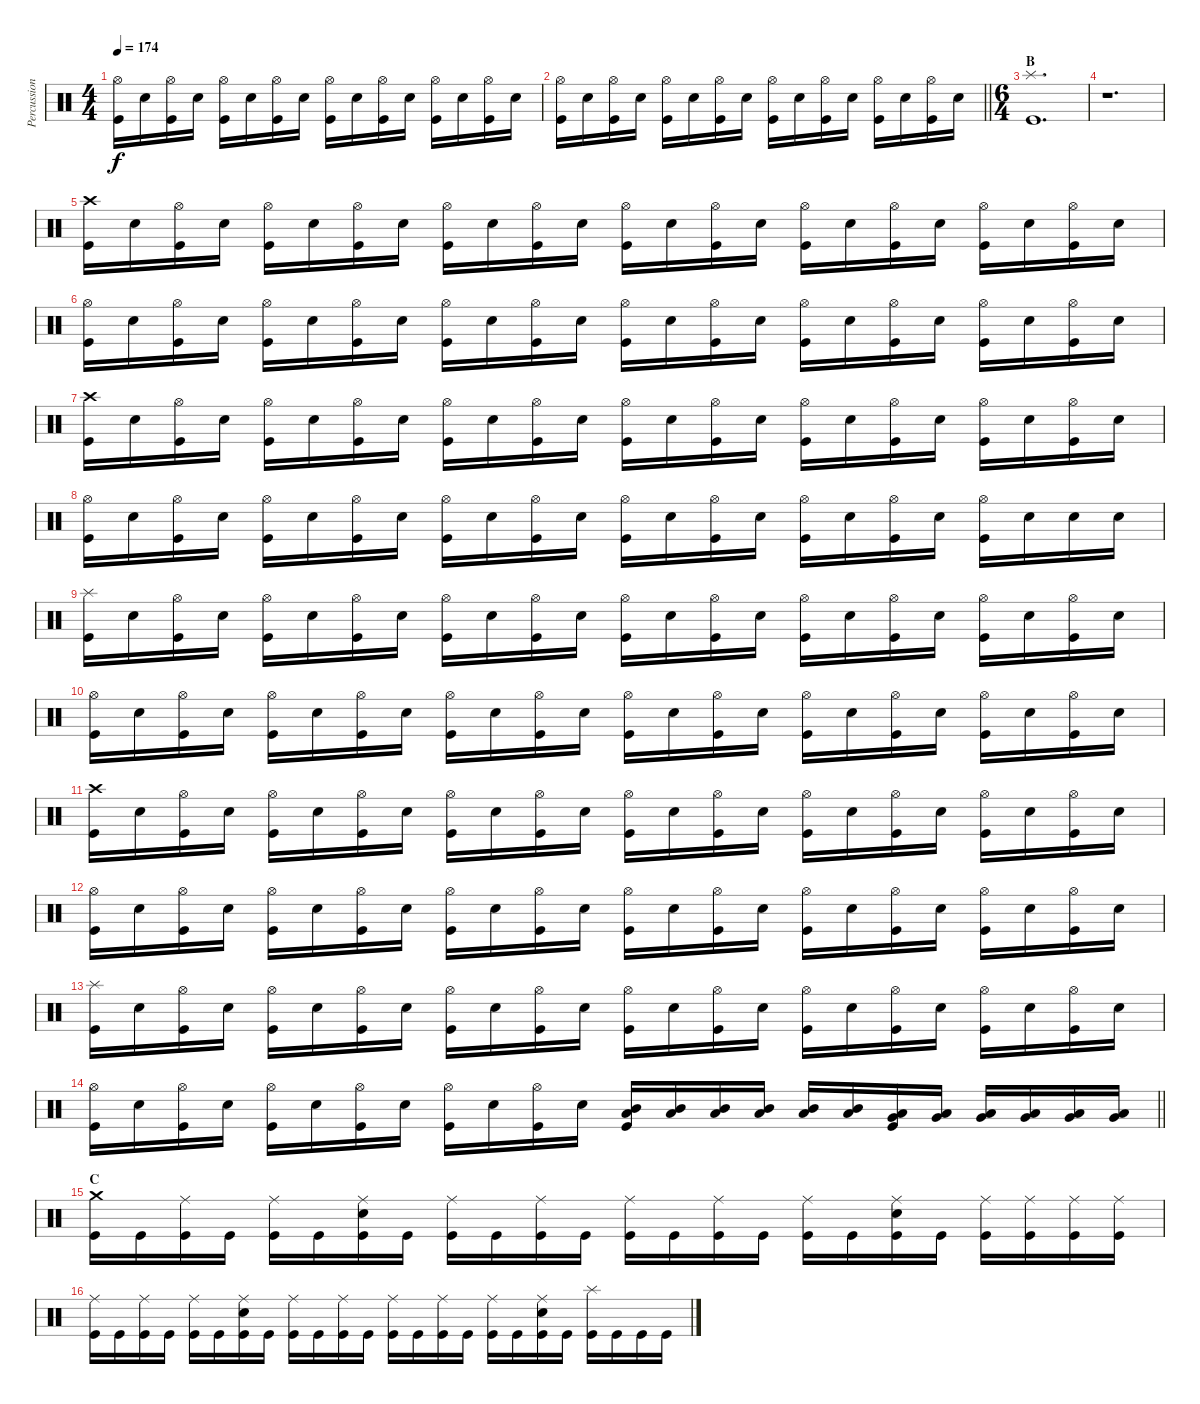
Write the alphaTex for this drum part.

\track ("Percussion" "Percussion") {instrument percussion}
\staff {score}
\articulation defaults
\ts (4 4)
\tempo 174
\clef neutral
\ks c
("Hi-Hat (open)" "Kick (hit)").16{dy f} "Snare (hit) 2".16 ("Hi-Hat (open)" "Kick (hit)").16 "Snare (hit) 2".16 ("Hi-Hat (open)" "Kick (hit)").16 "Snare (hit) 2".16 ("Hi-Hat (open)" "Kick (hit)").16 "Snare (hit) 2".16 ("Hi-Hat (open)" "Kick (hit)").16 "Snare (hit) 2".16 ("Hi-Hat (open)" "Kick (hit)").16 "Snare (hit) 2".16 ("Hi-Hat (open)" "Kick (hit)").16 "Snare (hit) 2".16 ("Hi-Hat (open)" "Kick (hit)").16 "Snare (hit) 2".16 |
\barLineRight lightlight
("Hi-Hat (open)" "Kick (hit)").16 "Snare (hit) 2".16 ("Hi-Hat (open)" "Kick (hit)").16 "Snare (hit) 2".16 ("Hi-Hat (open)" "Kick (hit)").16 "Snare (hit) 2".16 ("Hi-Hat (open)" "Kick (hit)").16 "Snare (hit) 2".16 ("Hi-Hat (open)" "Kick (hit)").16 "Snare (hit) 2".16 ("Hi-Hat (open)" "Kick (hit)").16 "Snare (hit) 2".16 ("Hi-Hat (open)" "Kick (hit)").16 "Snare (hit) 2".16 ("Hi-Hat (open)" "Kick (hit)").16 "Snare (hit) 2".16 |
\ts (6 4)
\section ("" "B")
("Splash (hit)" "Kick (hit)").1{d} |
r.1{d} |
("Crash high (hit)" "Kick (hit)").16 "Snare (hit) 2".16 ("Hi-Hat (open)" "Kick (hit)").16 "Snare (hit) 2".16 ("Hi-Hat (open)" "Kick (hit)").16 "Snare (hit) 2".16 ("Hi-Hat (open)" "Kick (hit)").16 "Snare (hit) 2".16 ("Hi-Hat (open)" "Kick (hit)").16 "Snare (hit) 2".16 ("Hi-Hat (open)" "Kick (hit)").16 "Snare (hit) 2".16 ("Hi-Hat (open)" "Kick (hit)").16 "Snare (hit) 2".16 ("Hi-Hat (open)" "Kick (hit)").16 "Snare (hit) 2".16 ("Hi-Hat (open)" "Kick (hit)").16 "Snare (hit) 2".16 ("Hi-Hat (open)" "Kick (hit)").16 "Snare (hit) 2".16 ("Hi-Hat (open)" "Kick (hit)").16 "Snare (hit) 2".16 ("Hi-Hat (open)" "Kick (hit)").16 "Snare (hit) 2".16 |
("Hi-Hat (open)" "Kick (hit)").16 "Snare (hit) 2".16 ("Hi-Hat (open)" "Kick (hit)").16 "Snare (hit) 2".16 ("Hi-Hat (open)" "Kick (hit)").16 "Snare (hit) 2".16 ("Hi-Hat (open)" "Kick (hit)").16 "Snare (hit) 2".16 ("Hi-Hat (open)" "Kick (hit)").16 "Snare (hit) 2".16 ("Hi-Hat (open)" "Kick (hit)").16 "Snare (hit) 2".16 ("Hi-Hat (open)" "Kick (hit)").16 "Snare (hit) 2".16 ("Hi-Hat (open)" "Kick (hit)").16 "Snare (hit) 2".16 ("Hi-Hat (open)" "Kick (hit)").16 "Snare (hit) 2".16 ("Hi-Hat (open)" "Kick (hit)").16 "Snare (hit) 2".16 ("Hi-Hat (open)" "Kick (hit)").16 "Snare (hit) 2".16 ("Hi-Hat (open)" "Kick (hit)").16 "Snare (hit) 2".16 |
("Crash high (hit)" "Kick (hit)").16 "Snare (hit) 2".16 ("Hi-Hat (open)" "Kick (hit)").16 "Snare (hit) 2".16 ("Hi-Hat (open)" "Kick (hit)").16 "Snare (hit) 2".16 ("Hi-Hat (open)" "Kick (hit)").16 "Snare (hit) 2".16 ("Hi-Hat (open)" "Kick (hit)").16 "Snare (hit) 2".16 ("Hi-Hat (open)" "Kick (hit)").16 "Snare (hit) 2".16 ("Hi-Hat (open)" "Kick (hit)").16 "Snare (hit) 2".16 ("Hi-Hat (open)" "Kick (hit)").16 "Snare (hit) 2".16 ("Hi-Hat (open)" "Kick (hit)").16 "Snare (hit) 2".16 ("Hi-Hat (open)" "Kick (hit)").16 "Snare (hit) 2".16 ("Hi-Hat (open)" "Kick (hit)").16 "Snare (hit) 2".16 ("Hi-Hat (open)" "Kick (hit)").16 "Snare (hit) 2".16 |
("Hi-Hat (open)" "Kick (hit)").16 "Snare (hit) 2".16 ("Hi-Hat (open)" "Kick (hit)").16 "Snare (hit) 2".16 ("Hi-Hat (open)" "Kick (hit)").16 "Snare (hit) 2".16 ("Hi-Hat (open)" "Kick (hit)").16 "Snare (hit) 2".16 ("Hi-Hat (open)" "Kick (hit)").16 "Snare (hit) 2".16 ("Hi-Hat (open)" "Kick (hit)").16 "Snare (hit) 2".16 ("Hi-Hat (open)" "Kick (hit)").16 "Snare (hit) 2".16 ("Hi-Hat (open)" "Kick (hit)").16 "Snare (hit) 2".16 ("Hi-Hat (open)" "Kick (hit)").16 "Snare (hit) 2".16 ("Hi-Hat (open)" "Kick (hit)").16 "Snare (hit) 2".16 ("Hi-Hat (open)" "Kick (hit)").16 "Snare (hit) 2".16 "Snare (hit) 2".16 "Snare (hit) 2".16 |
("Splash (hit)" "Kick (hit)").16 "Snare (hit) 2".16 ("Hi-Hat (open)" "Kick (hit)").16 "Snare (hit) 2".16 ("Hi-Hat (open)" "Kick (hit)").16 "Snare (hit) 2".16 ("Hi-Hat (open)" "Kick (hit)").16 "Snare (hit) 2".16 ("Hi-Hat (open)" "Kick (hit)").16 "Snare (hit) 2".16 ("Hi-Hat (open)" "Kick (hit)").16 "Snare (hit) 2".16 ("Hi-Hat (open)" "Kick (hit)").16 "Snare (hit) 2".16 ("Hi-Hat (open)" "Kick (hit)").16 "Snare (hit) 2".16 ("Hi-Hat (open)" "Kick (hit)").16 "Snare (hit) 2".16 ("Hi-Hat (open)" "Kick (hit)").16 "Snare (hit) 2".16 ("Hi-Hat (open)" "Kick (hit)").16 "Snare (hit) 2".16 ("Hi-Hat (open)" "Kick (hit)").16 "Snare (hit) 2".16 |
("Hi-Hat (open)" "Kick (hit)").16 "Snare (hit) 2".16 ("Hi-Hat (open)" "Kick (hit)").16 "Snare (hit) 2".16 ("Hi-Hat (open)" "Kick (hit)").16 "Snare (hit) 2".16 ("Hi-Hat (open)" "Kick (hit)").16 "Snare (hit) 2".16 ("Hi-Hat (open)" "Kick (hit)").16 "Snare (hit) 2".16 ("Hi-Hat (open)" "Kick (hit)").16 "Snare (hit) 2".16 ("Hi-Hat (open)" "Kick (hit)").16 "Snare (hit) 2".16 ("Hi-Hat (open)" "Kick (hit)").16 "Snare (hit) 2".16 ("Hi-Hat (open)" "Kick (hit)").16 "Snare (hit) 2".16 ("Hi-Hat (open)" "Kick (hit)").16 "Snare (hit) 2".16 ("Hi-Hat (open)" "Kick (hit)").16 "Snare (hit) 2".16 ("Hi-Hat (open)" "Kick (hit)").16 "Snare (hit) 2".16 |
("Crash high (hit)" "Kick (hit)").16 "Snare (hit) 2".16 ("Hi-Hat (open)" "Kick (hit)").16 "Snare (hit) 2".16 ("Hi-Hat (open)" "Kick (hit)").16 "Snare (hit) 2".16 ("Hi-Hat (open)" "Kick (hit)").16 "Snare (hit) 2".16 ("Hi-Hat (open)" "Kick (hit)").16 "Snare (hit) 2".16 ("Hi-Hat (open)" "Kick (hit)").16 "Snare (hit) 2".16 ("Hi-Hat (open)" "Kick (hit)").16 "Snare (hit) 2".16 ("Hi-Hat (open)" "Kick (hit)").16 "Snare (hit) 2".16 ("Hi-Hat (open)" "Kick (hit)").16 "Snare (hit) 2".16 ("Hi-Hat (open)" "Kick (hit)").16 "Snare (hit) 2".16 ("Hi-Hat (open)" "Kick (hit)").16 "Snare (hit) 2".16 ("Hi-Hat (open)" "Kick (hit)").16 "Snare (hit) 2".16 |
("Hi-Hat (open)" "Kick (hit)").16 "Snare (hit) 2".16 ("Hi-Hat (open)" "Kick (hit)").16 "Snare (hit) 2".16 ("Hi-Hat (open)" "Kick (hit)").16 "Snare (hit) 2".16 ("Hi-Hat (open)" "Kick (hit)").16 "Snare (hit) 2".16 ("Hi-Hat (open)" "Kick (hit)").16 "Snare (hit) 2".16 ("Hi-Hat (open)" "Kick (hit)").16 "Snare (hit) 2".16 ("Hi-Hat (open)" "Kick (hit)").16 "Snare (hit) 2".16 ("Hi-Hat (open)" "Kick (hit)").16 "Snare (hit) 2".16 ("Hi-Hat (open)" "Kick (hit)").16 "Snare (hit) 2".16 ("Hi-Hat (open)" "Kick (hit)").16 "Snare (hit) 2".16 ("Hi-Hat (open)" "Kick (hit)").16 "Snare (hit) 2".16 ("Hi-Hat (open)" "Kick (hit)").16 "Snare (hit) 2".16 |
("Splash (hit)" "Kick (hit)").16 "Snare (hit) 2".16 ("Hi-Hat (open)" "Kick (hit)").16 "Snare (hit) 2".16 ("Hi-Hat (open)" "Kick (hit)").16 "Snare (hit) 2".16 ("Hi-Hat (open)" "Kick (hit)").16 "Snare (hit) 2".16 ("Hi-Hat (open)" "Kick (hit)").16 "Snare (hit) 2".16 ("Hi-Hat (open)" "Kick (hit)").16 "Snare (hit) 2".16 ("Hi-Hat (open)" "Kick (hit)").16 "Snare (hit) 2".16 ("Hi-Hat (open)" "Kick (hit)").16 "Snare (hit) 2".16 ("Hi-Hat (open)" "Kick (hit)").16 "Snare (hit) 2".16 ("Hi-Hat (open)" "Kick (hit)").16 "Snare (hit) 2".16 ("Hi-Hat (open)" "Kick (hit)").16 "Snare (hit) 2".16 ("Hi-Hat (open)" "Kick (hit)").16 "Snare (hit) 2".16 |
\barLineRight lightlight
("Hi-Hat (open)" "Kick (hit)").16 "Snare (hit) 2".16 ("Hi-Hat (open)" "Kick (hit)").16 "Snare (hit) 2".16 ("Hi-Hat (open)" "Kick (hit)").16 "Snare (hit) 2".16 ("Hi-Hat (open)" "Kick (hit)").16 "Snare (hit) 2".16 ("Hi-Hat (open)" "Kick (hit)").16 "Snare (hit) 2".16 ("Hi-Hat (open)" "Kick (hit)").16 "Snare (hit) 2".16 ("Mid Tom (hit)" "Low Tom (hit)" "Kick (hit)").16 ("Mid Tom (hit)" "Low Tom (hit)").16 ("Mid Tom (hit)" "Low Tom (hit)").16 ("Mid Tom (hit)" "Low Tom (hit)").16 ("Mid Tom (hit)" "Low Tom (hit)").16 ("Mid Tom (hit)" "Low Tom (hit)").16 ("Low Tom (hit)" "Very Low Tom (hit)" "Kick (hit)").16 ("Low Tom (hit)" "Very Low Tom (hit)").16 ("Low Tom (hit)" "Very Low Tom (hit)").16 ("Low Tom (hit)" "Very Low Tom (hit)").16 ("Low Tom (hit)" "Very Low Tom (hit)").16 ("Low Tom (hit)" "Very Low Tom (hit)").16 |
\section ("" "C")
("Crash medium (hit)" "Kick (hit)").16 "Kick (hit)".16 ("Ride (middle)" "Kick (hit)").16 "Kick (hit)".16 ("Ride (middle)" "Kick (hit)").16 "Kick (hit)".16 ("Ride (middle)" "Snare (hit) 2" "Kick (hit)").16 "Kick (hit)".16 ("Ride (middle)" "Kick (hit)").16 "Kick (hit)".16 ("Ride (middle)" "Kick (hit)").16 "Kick (hit)".16 ("Ride (middle)" "Kick (hit)").16 "Kick (hit)".16 ("Ride (middle)" "Kick (hit)").16 "Kick (hit)".16 ("Ride (middle)" "Kick (hit)").16 "Kick (hit)".16 ("Ride (middle)" "Snare (hit) 2" "Kick (hit)").16 "Kick (hit)".16 ("Ride (middle)" "Kick (hit)").16 ("Ride (middle)" "Kick (hit)").16 ("Ride (middle)" "Kick (hit)").16 ("Ride (middle)" "Kick (hit)").16 |
("Ride (middle)" "Kick (hit)").16 "Kick (hit)".16 ("Ride (middle)" "Kick (hit)").16 "Kick (hit)".16 ("Ride (middle)" "Kick (hit)").16 "Kick (hit)".16 ("Ride (middle)" "Snare (hit) 2" "Kick (hit)").16 "Kick (hit)".16 ("Ride (middle)" "Kick (hit)").16 "Kick (hit)".16 ("Ride (middle)" "Kick (hit)").16 "Kick (hit)".16 ("Ride (middle)" "Kick (hit)").16 "Kick (hit)".16 ("Ride (middle)" "Kick (hit)").16 "Kick (hit)".16 ("Ride (middle)" "Kick (hit)").16 "Kick (hit)".16 ("Ride (middle)" "Snare (hit) 2" "Kick (hit)").16 "Kick (hit)".16 ("Splash (hit)" "Kick (hit)").16 "Kick (hit)".16 "Kick (hit)".16 "Kick (hit)".16
